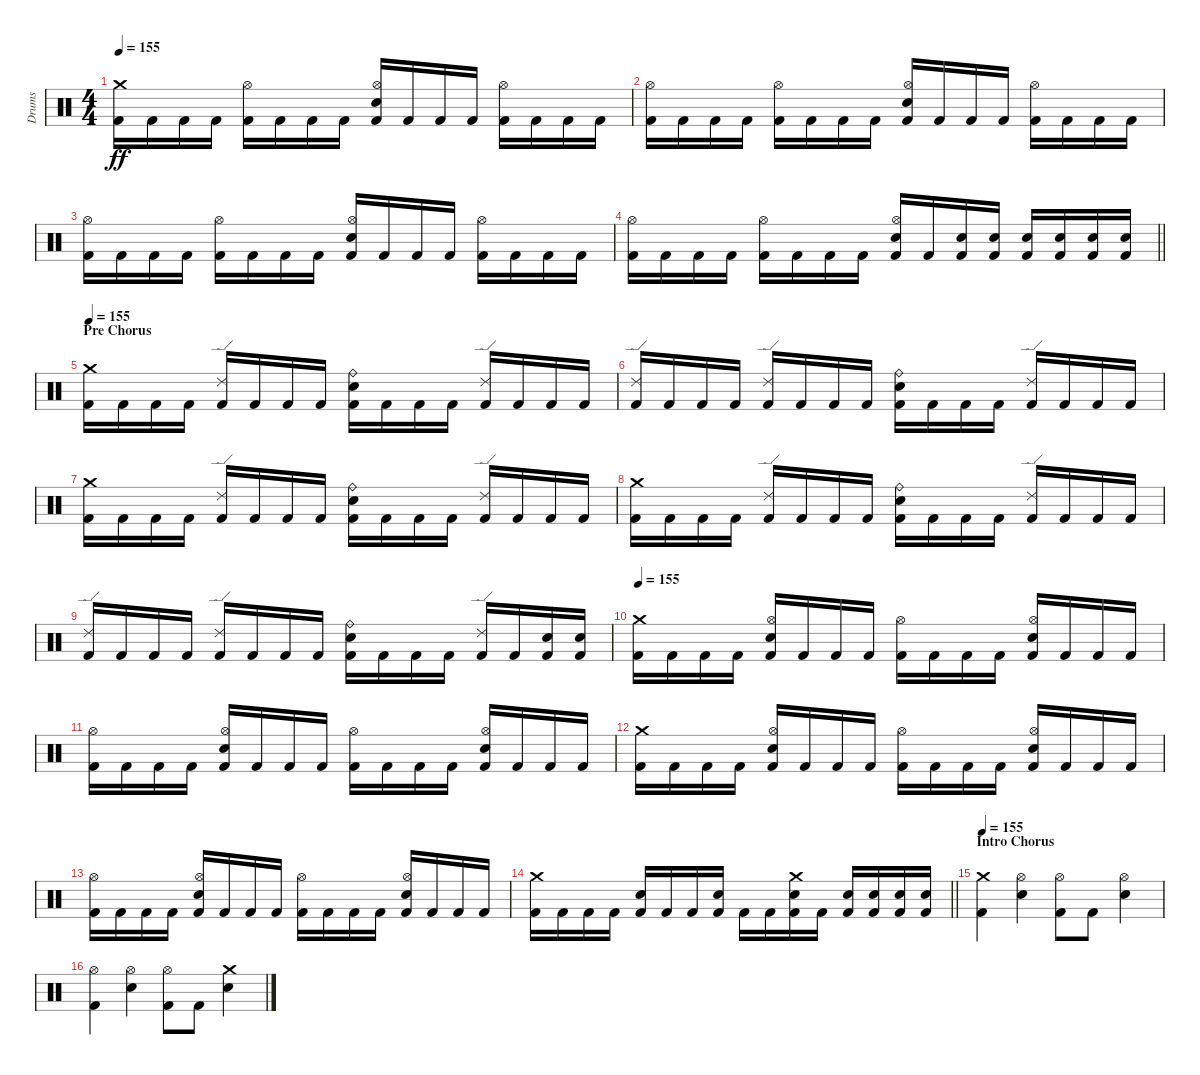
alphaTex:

\track ("Drums" "Drums") {solo instrument percussion}
\staff {score}
\articulation defaults
\ts (4 4)
\tempo 155
\clef neutral
\ks c
("Crash medium (hit)" "Kick (hit) 2").16{dy ff} "Kick (hit) 2".16 "Kick (hit) 2".16 "Kick (hit) 2".16 ("Hi-Hat (open)" "Kick (hit) 2").16 "Kick (hit) 2".16 "Kick (hit) 2".16 "Kick (hit) 2".16 ("Electric Snare (hit)" "Hi-Hat (open)" "Kick (hit) 2").16 "Kick (hit) 2".16 "Kick (hit) 2".16 "Kick (hit) 2".16 ("Hi-Hat (open)" "Kick (hit) 2").16 "Kick (hit) 2".16 "Kick (hit) 2".16 "Kick (hit) 2".16 |
("Hi-Hat (open)" "Kick (hit) 2").16 "Kick (hit) 2".16 "Kick (hit) 2".16 "Kick (hit) 2".16 ("Hi-Hat (open)" "Kick (hit) 2").16 "Kick (hit) 2".16 "Kick (hit) 2".16 "Kick (hit) 2".16 ("Electric Snare (hit)" "Hi-Hat (open)" "Kick (hit) 2").16 "Kick (hit) 2".16 "Kick (hit) 2".16 "Kick (hit) 2".16 ("Hi-Hat (open)" "Kick (hit) 2").16 "Kick (hit) 2".16 "Kick (hit) 2".16 "Kick (hit) 2".16 |
("Hi-Hat (open)" "Kick (hit) 2").16 "Kick (hit) 2".16 "Kick (hit) 2".16 "Kick (hit) 2".16 ("Hi-Hat (open)" "Kick (hit) 2").16 "Kick (hit) 2".16 "Kick (hit) 2".16 "Kick (hit) 2".16 ("Electric Snare (hit)" "Hi-Hat (open)" "Kick (hit) 2").16 "Kick (hit) 2".16 "Kick (hit) 2".16 "Kick (hit) 2".16 ("Hi-Hat (open)" "Kick (hit) 2").16 "Kick (hit) 2".16 "Kick (hit) 2".16 "Kick (hit) 2".16 |
\barLineRight lightlight
("Hi-Hat (open)" "Kick (hit) 2").16 "Kick (hit) 2".16 "Kick (hit) 2".16 "Kick (hit) 2".16 ("Hi-Hat (open)" "Kick (hit) 2").16 "Kick (hit) 2".16 "Kick (hit) 2".16 "Kick (hit) 2".16 ("Electric Snare (hit)" "Hi-Hat (open)" "Kick (hit) 2").16 "Kick (hit) 2".16 ("Electric Snare (hit)" "Kick (hit) 2").16 ("Electric Snare (hit)" "Kick (hit) 2").16 ("Electric Snare (hit)" "Kick (hit) 2").16 ("Electric Snare (hit)" "Kick (hit) 2").16 ("Electric Snare (hit)" "Kick (hit) 2").16 ("Electric Snare (hit)" "Kick (hit) 2").16 |
\section ("" "Pre Chorus")
\tempo 155
("Crash medium (hit)" "Kick (hit) 2").16 "Kick (hit) 2".16 "Kick (hit) 2".16 "Kick (hit) 2".16 ("Ride (edge) 2" "Kick (hit) 2").16 "Kick (hit) 2".16 "Kick (hit) 2".16 "Kick (hit) 2".16 ("Electric Snare (hit)" "Ride (bell)" "Kick (hit) 2").16 "Kick (hit) 2".16 "Kick (hit) 2".16 "Kick (hit) 2".16 ("Ride (edge) 2" "Kick (hit) 2").16 "Kick (hit) 2".16 "Kick (hit) 2".16 "Kick (hit) 2".16 |
("Ride (edge) 2" "Kick (hit) 2").16 "Kick (hit) 2".16 "Kick (hit) 2".16 "Kick (hit) 2".16 ("Ride (edge) 2" "Kick (hit) 2").16 "Kick (hit) 2".16 "Kick (hit) 2".16 "Kick (hit) 2".16 ("Electric Snare (hit)" "Ride (bell)" "Kick (hit) 2").16 "Kick (hit) 2".16 "Kick (hit) 2".16 "Kick (hit) 2".16 ("Ride (edge) 2" "Kick (hit) 2").16 "Kick (hit) 2".16 "Kick (hit) 2".16 "Kick (hit) 2".16 |
("Crash medium (hit)" "Kick (hit) 2").16 "Kick (hit) 2".16 "Kick (hit) 2".16 "Kick (hit) 2".16 ("Ride (edge) 2" "Kick (hit) 2").16 "Kick (hit) 2".16 "Kick (hit) 2".16 "Kick (hit) 2".16 ("Electric Snare (hit)" "Ride (bell)" "Kick (hit) 2").16 "Kick (hit) 2".16 "Kick (hit) 2".16 "Kick (hit) 2".16 ("Ride (edge) 2" "Kick (hit) 2").16 "Kick (hit) 2".16 "Kick (hit) 2".16 "Kick (hit) 2".16 |
("Crash medium (hit)" "Kick (hit) 2").16 "Kick (hit) 2".16 "Kick (hit) 2".16 "Kick (hit) 2".16 ("Ride (edge) 2" "Kick (hit) 2").16 "Kick (hit) 2".16 "Kick (hit) 2".16 "Kick (hit) 2".16 ("Electric Snare (hit)" "Ride (bell)" "Kick (hit) 2").16 "Kick (hit) 2".16 "Kick (hit) 2".16 "Kick (hit) 2".16 ("Ride (edge) 2" "Kick (hit) 2").16 "Kick (hit) 2".16 "Kick (hit) 2".16 "Kick (hit) 2".16 |
("Ride (edge) 2" "Kick (hit) 2").16 "Kick (hit) 2".16 "Kick (hit) 2".16 "Kick (hit) 2".16 ("Ride (edge) 2" "Kick (hit) 2").16 "Kick (hit) 2".16 "Kick (hit) 2".16 "Kick (hit) 2".16 ("Electric Snare (hit)" "Ride (bell)" "Kick (hit) 2").16 "Kick (hit) 2".16 "Kick (hit) 2".16 "Kick (hit) 2".16 ("Ride (edge) 2" "Kick (hit) 2").16 "Kick (hit) 2".16 ("Electric Snare (hit)" "Kick (hit) 2").16 ("Electric Snare (hit)" "Kick (hit) 2").16 |
\tempo 155
("Crash medium (hit)" "Kick (hit) 2").16 "Kick (hit) 2".16 "Kick (hit) 2".16 "Kick (hit) 2".16 ("Electric Snare (hit)" "Hi-Hat (open)" "Kick (hit) 2").16 "Kick (hit) 2".16 "Kick (hit) 2".16 "Kick (hit) 2".16 ("Hi-Hat (open)" "Kick (hit) 2").16 "Kick (hit) 2".16 "Kick (hit) 2".16 "Kick (hit) 2".16 ("Electric Snare (hit)" "Hi-Hat (open)" "Kick (hit) 2").16 "Kick (hit) 2".16 "Kick (hit) 2".16 "Kick (hit) 2".16 |
("Hi-Hat (open)" "Kick (hit) 2").16 "Kick (hit) 2".16 "Kick (hit) 2".16 "Kick (hit) 2".16 ("Electric Snare (hit)" "Hi-Hat (open)" "Kick (hit) 2").16 "Kick (hit) 2".16 "Kick (hit) 2".16 "Kick (hit) 2".16 ("Hi-Hat (open)" "Kick (hit) 2").16 "Kick (hit) 2".16 "Kick (hit) 2".16 "Kick (hit) 2".16 ("Electric Snare (hit)" "Hi-Hat (open)" "Kick (hit) 2").16 "Kick (hit) 2".16 "Kick (hit) 2".16 "Kick (hit) 2".16 |
("Crash medium (hit)" "Kick (hit) 2").16 "Kick (hit) 2".16 "Kick (hit) 2".16 "Kick (hit) 2".16 ("Electric Snare (hit)" "Hi-Hat (open)" "Kick (hit) 2").16 "Kick (hit) 2".16 "Kick (hit) 2".16 "Kick (hit) 2".16 ("Hi-Hat (open)" "Kick (hit) 2").16 "Kick (hit) 2".16 "Kick (hit) 2".16 "Kick (hit) 2".16 ("Electric Snare (hit)" "Hi-Hat (open)" "Kick (hit) 2").16 "Kick (hit) 2".16 "Kick (hit) 2".16 "Kick (hit) 2".16 |
("Hi-Hat (open)" "Kick (hit) 2").16 "Kick (hit) 2".16 "Kick (hit) 2".16 "Kick (hit) 2".16 ("Electric Snare (hit)" "Hi-Hat (open)" "Kick (hit) 2").16 "Kick (hit) 2".16 "Kick (hit) 2".16 "Kick (hit) 2".16 ("Hi-Hat (open)" "Kick (hit) 2").16 "Kick (hit) 2".16 "Kick (hit) 2".16 "Kick (hit) 2".16 ("Electric Snare (hit)" "Hi-Hat (open)" "Kick (hit) 2").16 "Kick (hit) 2".16 "Kick (hit) 2".16 "Kick (hit) 2".16 |
\barLineRight lightlight
("Crash medium (hit)" "Kick (hit) 2").16 "Kick (hit) 2".16 "Kick (hit) 2".16 "Kick (hit) 2".16 ("Electric Snare (hit)" "Kick (hit) 2").16 "Kick (hit) 2".16 "Kick (hit) 2".16 ("Electric Snare (hit)" "Kick (hit) 2").16 "Kick (hit) 2".16 "Kick (hit) 2".16 ("Crash medium (hit)" "Electric Snare (hit)" "Kick (hit) 2").16 "Kick (hit) 2".16 ("Electric Snare (hit)" "Kick (hit) 2").16 ("Electric Snare (hit)" "Kick (hit) 2").16 ("Electric Snare (hit)" "Kick (hit) 2").16 ("Electric Snare (hit)" "Kick (hit) 2").16 |
\section ("" "Intro Chorus")
\tempo 155
("Crash medium (hit)" "Kick (hit) 2").4 ("Hi-Hat (open)" "Electric Snare (hit)").4 ("Hi-Hat (open)" "Kick (hit) 2").8 "Kick (hit) 2".8 ("Hi-Hat (open)" "Electric Snare (hit)").4 |
("Hi-Hat (open)" "Kick (hit) 2").4 ("Hi-Hat (open)" "Electric Snare (hit)").4 ("Hi-Hat (open)" "Kick (hit) 2").8 "Kick (hit) 2".8 ("Crash medium (hit)" "Electric Snare (hit)").4
